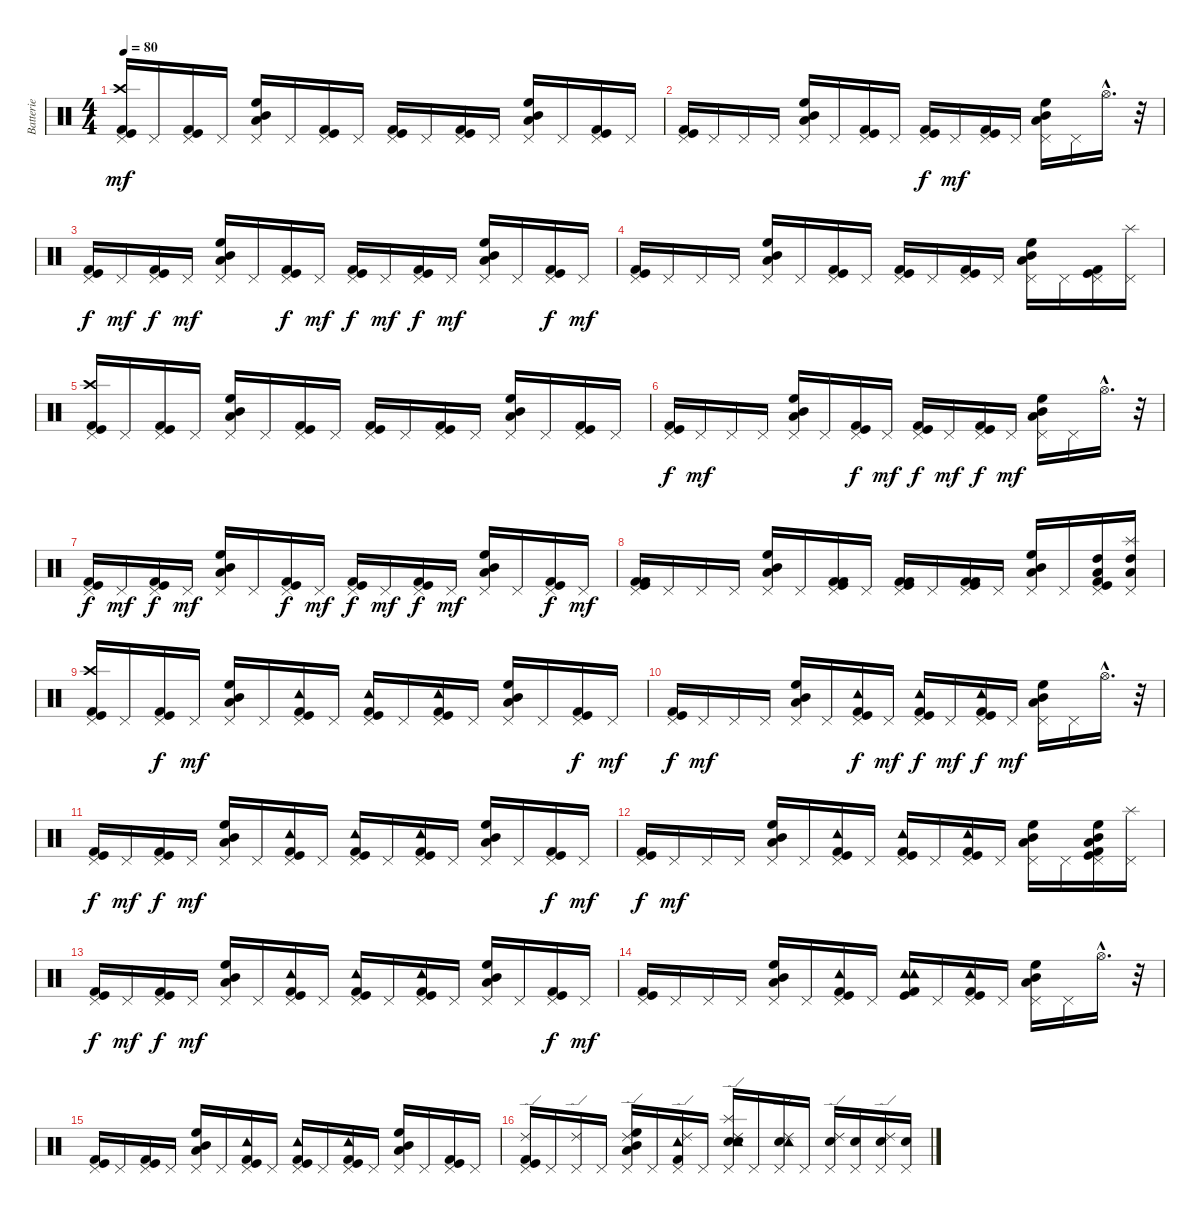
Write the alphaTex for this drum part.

\track ("Batterie" "Batterie") {instrument percussion}
\staff {score}
\articulation defaults
\ts (4 4)
\tempo 80
\clef neutral
\ks c
("Pedal Hi-Hat (hit)" "Crash high (hit)" "Kick (hit)" "Kick (hit) 2").16{dy mf} "Pedal Hi-Hat (hit)".16 ("Pedal Hi-Hat (hit)" "Kick (hit)" "Kick (hit) 2").16 "Pedal Hi-Hat (hit)".16 ("Pedal Hi-Hat (hit)" "High Floor Tom (hit)" "Mid Tom (hit)" "Low Tom (hit)").16 "Pedal Hi-Hat (hit)".16 ("Pedal Hi-Hat (hit)" "Kick (hit)" "Kick (hit) 2").16 "Pedal Hi-Hat (hit)".16 ("Pedal Hi-Hat (hit)" "Kick (hit)" "Kick (hit) 2").16 "Pedal Hi-Hat (hit)".16 ("Pedal Hi-Hat (hit)" "Kick (hit)" "Kick (hit) 2").16 "Pedal Hi-Hat (hit)".16 ("Pedal Hi-Hat (hit)" "High Floor Tom (hit)" "Mid Tom (hit)" "Low Tom (hit)").16 "Pedal Hi-Hat (hit)".16 ("Pedal Hi-Hat (hit)" "Kick (hit)" "Kick (hit) 2").16 "Pedal Hi-Hat (hit)".16 |
("Pedal Hi-Hat (hit)" "Kick (hit)" "Kick (hit) 2").16 "Pedal Hi-Hat (hit)".16 "Pedal Hi-Hat (hit)".16 "Pedal Hi-Hat (hit)".16 ("Pedal Hi-Hat (hit)" "High Floor Tom (hit)" "Mid Tom (hit)" "Low Tom (hit)").16 "Pedal Hi-Hat (hit)".16 ("Pedal Hi-Hat (hit)" "Kick (hit)" "Kick (hit) 2").16 "Pedal Hi-Hat (hit)".16 ("Pedal Hi-Hat (hit)" "Kick (hit)" "Kick (hit) 2").16{dy f} "Pedal Hi-Hat (hit)".16{dy mf} ("Pedal Hi-Hat (hit)" "Kick (hit)" "Kick (hit) 2").16 "Pedal Hi-Hat (hit)".16 ("Pedal Hi-Hat (hit)" "High Floor Tom (hit)" "Mid Tom (hit)" "Low Tom (hit)").16 "Pedal Hi-Hat (hit)".16 "Hi-Hat (open)"{hac}.16{d} r.32 |
("Pedal Hi-Hat (hit)" "Kick (hit)" "Kick (hit) 2").16{dy f} "Pedal Hi-Hat (hit)".16{dy mf} ("Pedal Hi-Hat (hit)" "Kick (hit)" "Kick (hit) 2").16{dy f} "Pedal Hi-Hat (hit)".16{dy mf} ("Pedal Hi-Hat (hit)" "High Floor Tom (hit)" "Mid Tom (hit)" "Low Tom (hit)").16 "Pedal Hi-Hat (hit)".16 ("Pedal Hi-Hat (hit)" "Kick (hit)" "Kick (hit) 2").16{dy f} "Pedal Hi-Hat (hit)".16{dy mf} ("Pedal Hi-Hat (hit)" "Kick (hit)" "Kick (hit) 2").16{dy f} "Pedal Hi-Hat (hit)".16{dy mf} ("Pedal Hi-Hat (hit)" "Kick (hit)" "Kick (hit) 2").16{dy f} "Pedal Hi-Hat (hit)".16{dy mf} ("Pedal Hi-Hat (hit)" "High Floor Tom (hit)" "Mid Tom (hit)" "Low Tom (hit)").16 "Pedal Hi-Hat (hit)".16 ("Pedal Hi-Hat (hit)" "Kick (hit)" "Kick (hit) 2").16{dy f} "Pedal Hi-Hat (hit)".16{dy mf} |
("Pedal Hi-Hat (hit)" "Kick (hit)" "Kick (hit) 2").16 "Pedal Hi-Hat (hit)".16 "Pedal Hi-Hat (hit)".16 "Pedal Hi-Hat (hit)".16 ("Pedal Hi-Hat (hit)" "High Floor Tom (hit)" "Mid Tom (hit)" "Low Tom (hit)").16 "Pedal Hi-Hat (hit)".16 ("Pedal Hi-Hat (hit)" "Kick (hit)" "Kick (hit) 2").16 "Pedal Hi-Hat (hit)".16 ("Pedal Hi-Hat (hit)" "Kick (hit)" "Kick (hit) 2").16 "Pedal Hi-Hat (hit)".16 ("Pedal Hi-Hat (hit)" "Kick (hit)" "Kick (hit) 2").16 "Pedal Hi-Hat (hit)".16 ("Pedal Hi-Hat (hit)" "High Floor Tom (hit)" "Mid Tom (hit)" "Low Tom (hit)").16 "Pedal Hi-Hat (hit)".16 ("Pedal Hi-Hat (hit)" "Kick (hit)" "Kick (hit) 2").16 ("Pedal Hi-Hat (hit)" "Splash (hit)").16 |
("Pedal Hi-Hat (hit)" "Crash high (hit)" "Kick (hit)" "Kick (hit) 2").16 "Pedal Hi-Hat (hit)".16 ("Pedal Hi-Hat (hit)" "Kick (hit)" "Kick (hit) 2").16 "Pedal Hi-Hat (hit)".16 ("Pedal Hi-Hat (hit)" "High Floor Tom (hit)" "Mid Tom (hit)" "Low Tom (hit)").16 "Pedal Hi-Hat (hit)".16 ("Pedal Hi-Hat (hit)" "Kick (hit)" "Kick (hit) 2").16 "Pedal Hi-Hat (hit)".16 ("Pedal Hi-Hat (hit)" "Kick (hit)" "Kick (hit) 2").16 "Pedal Hi-Hat (hit)".16 ("Pedal Hi-Hat (hit)" "Kick (hit)" "Kick (hit) 2").16 "Pedal Hi-Hat (hit)".16 ("Pedal Hi-Hat (hit)" "High Floor Tom (hit)" "Mid Tom (hit)" "Low Tom (hit)").16 "Pedal Hi-Hat (hit)".16 ("Pedal Hi-Hat (hit)" "Kick (hit)" "Kick (hit) 2").16 "Pedal Hi-Hat (hit)".16 |
("Pedal Hi-Hat (hit)" "Kick (hit)" "Kick (hit) 2").16{dy f} "Pedal Hi-Hat (hit)".16{dy mf} "Pedal Hi-Hat (hit)".16 "Pedal Hi-Hat (hit)".16 ("Low Tom (hit)" "High Floor Tom (hit)" "Mid Tom (hit)" "Pedal Hi-Hat (hit)").16 "Pedal Hi-Hat (hit)".16 ("Pedal Hi-Hat (hit)" "Kick (hit)" "Kick (hit) 2").16{dy f} "Pedal Hi-Hat (hit)".16{dy mf} ("Pedal Hi-Hat (hit)" "Kick (hit)" "Kick (hit) 2").16{dy f} "Pedal Hi-Hat (hit)".16{dy mf} ("Pedal Hi-Hat (hit)" "Kick (hit)" "Kick (hit) 2").16{dy f} "Pedal Hi-Hat (hit)".16{dy mf} ("Pedal Hi-Hat (hit)" "High Floor Tom (hit)" "Mid Tom (hit)" "Low Tom (hit)").16 "Pedal Hi-Hat (hit)".16 "Hi-Hat (open)"{hac}.16{d} r.32 |
("Pedal Hi-Hat (hit)" "Kick (hit)" "Kick (hit) 2").16{dy f} "Pedal Hi-Hat (hit)".16{dy mf} ("Pedal Hi-Hat (hit)" "Kick (hit)" "Kick (hit) 2").16{dy f} "Pedal Hi-Hat (hit)".16{dy mf} ("Pedal Hi-Hat (hit)" "High Floor Tom (hit)" "Mid Tom (hit)" "Low Tom (hit)").16 "Pedal Hi-Hat (hit)".16 ("Pedal Hi-Hat (hit)" "Kick (hit)" "Kick (hit) 2").16{dy f} "Pedal Hi-Hat (hit)".16{dy mf} ("Pedal Hi-Hat (hit)" "Kick (hit)" "Kick (hit) 2").16{dy f} "Pedal Hi-Hat (hit)".16{dy mf} ("Pedal Hi-Hat (hit)" "Kick (hit)" "Kick (hit) 2").16{dy f} "Pedal Hi-Hat (hit)".16{dy mf} ("Pedal Hi-Hat (hit)" "High Floor Tom (hit)" "Mid Tom (hit)" "Low Tom (hit)").16 "Pedal Hi-Hat (hit)".16 ("Pedal Hi-Hat (hit)" "Kick (hit)" "Kick (hit) 2").16{dy f} "Pedal Hi-Hat (hit)".16{dy mf} |
("Kick (hit) 2" "Kick (hit)" "Pedal Hi-Hat (hit)" "Kick (hit) 2").16 "Pedal Hi-Hat (hit)".16 "Pedal Hi-Hat (hit)".16 "Pedal Hi-Hat (hit)".16 ("Low Tom (hit)" "Mid Tom (hit)" "High Floor Tom (hit)" "Pedal Hi-Hat (hit)").16 "Pedal Hi-Hat (hit)".16 ("Kick (hit) 2" "Kick (hit)" "Pedal Hi-Hat (hit)" "Kick (hit) 2").16 "Pedal Hi-Hat (hit)".16 ("Kick (hit) 2" "Kick (hit)" "Pedal Hi-Hat (hit)" "Kick (hit) 2").16 "Pedal Hi-Hat (hit)".16 ("Kick (hit) 2" "Kick (hit)" "Pedal Hi-Hat (hit)" "Kick (hit) 2").16 "Pedal Hi-Hat (hit)".16 ("Low Tom (hit)" "High Floor Tom (hit)" "Mid Tom (hit)" "Pedal Hi-Hat (hit)").16 "Pedal Hi-Hat (hit)".16 ("High Tom (hit)" "Low Tom (hit)" "Kick (hit)" "Kick (hit) 2" "Pedal Hi-Hat (hit)").16 ("Low Tom (hit)" "High Tom (hit)" "Splash (hit)" "Pedal Hi-Hat (hit)").16 |
("Pedal Hi-Hat (hit)" "Crash high (hit)" "Kick (hit)" "Kick (hit) 2").16 "Pedal Hi-Hat (hit)".16 ("Pedal Hi-Hat (hit)" "Kick (hit)" "Kick (hit) 2").16{dy f} "Pedal Hi-Hat (hit)".16{dy mf} ("Pedal Hi-Hat (hit)" "High Floor Tom (hit)" "Mid Tom (hit)" "Low Tom (hit)").16 "Pedal Hi-Hat (hit)".16 ("Pedal Hi-Hat (hit)" "Tambourine (hit)" "Kick (hit)" "Kick (hit) 2").16 "Pedal Hi-Hat (hit)".16 ("Pedal Hi-Hat (hit)" "Tambourine (hit)" "Kick (hit)" "Kick (hit) 2").16 "Pedal Hi-Hat (hit)".16 ("Pedal Hi-Hat (hit)" "Tambourine (hit)" "Kick (hit)" "Kick (hit) 2").16 "Pedal Hi-Hat (hit)".16 ("Pedal Hi-Hat (hit)" "High Floor Tom (hit)" "Mid Tom (hit)" "Low Tom (hit)").16 "Pedal Hi-Hat (hit)".16 ("Pedal Hi-Hat (hit)" "Kick (hit)" "Kick (hit) 2").16{dy f} "Pedal Hi-Hat (hit)".16{dy mf} |
("Pedal Hi-Hat (hit)" "Kick (hit)" "Kick (hit) 2").16{dy f} "Pedal Hi-Hat (hit)".16{dy mf} "Pedal Hi-Hat (hit)".16 "Pedal Hi-Hat (hit)".16 ("Pedal Hi-Hat (hit)" "High Floor Tom (hit)" "Mid Tom (hit)" "Low Tom (hit)").16 "Pedal Hi-Hat (hit)".16 ("Pedal Hi-Hat (hit)" "Tambourine (hit)" "Kick (hit)" "Kick (hit) 2").16{dy f} "Pedal Hi-Hat (hit)".16{dy mf} ("Pedal Hi-Hat (hit)" "Tambourine (hit)" "Kick (hit)" "Kick (hit) 2").16{dy f} "Pedal Hi-Hat (hit)".16{dy mf} ("Pedal Hi-Hat (hit)" "Tambourine (hit)" "Kick (hit)" "Kick (hit) 2").16{dy f} "Pedal Hi-Hat (hit)".16{dy mf} ("Pedal Hi-Hat (hit)" "High Floor Tom (hit)" "Mid Tom (hit)" "Low Tom (hit)").16 "Pedal Hi-Hat (hit)".16 "Hi-Hat (open)"{hac}.16{d} r.32 |
("Pedal Hi-Hat (hit)" "Kick (hit)" "Kick (hit) 2").16{dy f} "Pedal Hi-Hat (hit)".16{dy mf} ("Pedal Hi-Hat (hit)" "Kick (hit)" "Kick (hit) 2").16{dy f} "Pedal Hi-Hat (hit)".16{dy mf} ("Pedal Hi-Hat (hit)" "High Floor Tom (hit)" "Mid Tom (hit)" "Low Tom (hit)").16 "Pedal Hi-Hat (hit)".16 ("Pedal Hi-Hat (hit)" "Tambourine (hit)" "Kick (hit)" "Kick (hit) 2").16 "Pedal Hi-Hat (hit)".16 ("Pedal Hi-Hat (hit)" "Tambourine (hit)" "Kick (hit)" "Kick (hit) 2").16 "Pedal Hi-Hat (hit)".16 ("Pedal Hi-Hat (hit)" "Tambourine (hit)" "Kick (hit)" "Kick (hit) 2").16 "Pedal Hi-Hat (hit)".16 ("Pedal Hi-Hat (hit)" "High Floor Tom (hit)" "Mid Tom (hit)" "Low Tom (hit)").16 "Pedal Hi-Hat (hit)".16 ("Pedal Hi-Hat (hit)" "Kick (hit)" "Kick (hit) 2").16{dy f} "Pedal Hi-Hat (hit)".16{dy mf} |
("Pedal Hi-Hat (hit)" "Kick (hit)" "Kick (hit) 2").16{dy f} "Pedal Hi-Hat (hit)".16{dy mf} "Pedal Hi-Hat (hit)".16 "Pedal Hi-Hat (hit)".16 ("Pedal Hi-Hat (hit)" "High Floor Tom (hit)" "Mid Tom (hit)" "Low Tom (hit)").16 "Pedal Hi-Hat (hit)".16 ("Pedal Hi-Hat (hit)" "Tambourine (hit)" "Kick (hit)" "Kick (hit) 2").16 "Pedal Hi-Hat (hit)".16 ("Pedal Hi-Hat (hit)" "Tambourine (hit)" "Kick (hit)" "Kick (hit) 2").16 "Pedal Hi-Hat (hit)".16 ("Pedal Hi-Hat (hit)" "Tambourine (hit)" "Kick (hit)" "Kick (hit) 2").16 "Pedal Hi-Hat (hit)".16 ("Pedal Hi-Hat (hit)" "High Floor Tom (hit)" "Mid Tom (hit)" "Low Tom (hit)").16 "Pedal Hi-Hat (hit)".16 ("Pedal Hi-Hat (hit)" "High Floor Tom (hit)" "Mid Tom (hit)" "Low Tom (hit)" "Kick (hit)" "Kick (hit) 2").16 ("Pedal Hi-Hat (hit)" "Splash (hit)").16 |
("Pedal Hi-Hat (hit)" "Kick (hit)" "Kick (hit) 2").16{dy f} "Pedal Hi-Hat (hit)".16{dy mf} ("Pedal Hi-Hat (hit)" "Kick (hit)" "Kick (hit) 2").16{dy f} "Pedal Hi-Hat (hit)".16{dy mf} ("Pedal Hi-Hat (hit)" "High Floor Tom (hit)" "Mid Tom (hit)" "Low Tom (hit)").16 "Pedal Hi-Hat (hit)".16 ("Pedal Hi-Hat (hit)" "Tambourine (hit)" "Kick (hit)" "Kick (hit) 2").16 "Pedal Hi-Hat (hit)".16 ("Pedal Hi-Hat (hit)" "Tambourine (hit)" "Kick (hit)" "Kick (hit) 2").16 "Pedal Hi-Hat (hit)".16 ("Pedal Hi-Hat (hit)" "Tambourine (hit)" "Kick (hit)" "Kick (hit) 2").16 "Pedal Hi-Hat (hit)".16 ("Pedal Hi-Hat (hit)" "High Floor Tom (hit)" "Mid Tom (hit)" "Low Tom (hit)").16 "Pedal Hi-Hat (hit)".16 ("Pedal Hi-Hat (hit)" "Kick (hit)" "Kick (hit) 2").16{dy f} "Pedal Hi-Hat (hit)".16{dy mf} |
("Pedal Hi-Hat (hit)" "Kick (hit)" "Kick (hit) 2").16 "Pedal Hi-Hat (hit)".16 "Pedal Hi-Hat (hit)".16 "Pedal Hi-Hat (hit)".16 ("Pedal Hi-Hat (hit)" "High Floor Tom (hit)" "Mid Tom (hit)" "Low Tom (hit)").16 "Pedal Hi-Hat (hit)".16 ("Pedal Hi-Hat (hit)" "Tambourine (hit)" "Kick (hit)" "Kick (hit) 2").16 "Pedal Hi-Hat (hit)".16 ("Tambourine (hit)" "Tambourine (hit)" "Kick (hit)" "Kick (hit) 2").16 "Pedal Hi-Hat (hit)".16 ("Pedal Hi-Hat (hit)" "Tambourine (hit)" "Kick (hit)" "Kick (hit) 2").16 "Pedal Hi-Hat (hit)".16 ("Pedal Hi-Hat (hit)" "High Floor Tom (hit)" "Mid Tom (hit)" "Low Tom (hit)").16 "Pedal Hi-Hat (hit)".16 "Hi-Hat (open)"{hac}.16{d} r.32 |
("Pedal Hi-Hat (hit)" "Kick (hit)" "Kick (hit) 2").16 "Pedal Hi-Hat (hit)".16 ("Pedal Hi-Hat (hit)" "Kick (hit)" "Kick (hit) 2").16 "Pedal Hi-Hat (hit)".16 ("Pedal Hi-Hat (hit)" "High Floor Tom (hit)" "Mid Tom (hit)" "Low Tom (hit)").16 "Pedal Hi-Hat (hit)".16 ("Pedal Hi-Hat (hit)" "Tambourine (hit)" "Kick (hit)" "Kick (hit) 2").16 "Pedal Hi-Hat (hit)".16 ("Pedal Hi-Hat (hit)" "Tambourine (hit)" "Kick (hit)" "Kick (hit) 2").16 "Pedal Hi-Hat (hit)".16 ("Pedal Hi-Hat (hit)" "Tambourine (hit)" "Kick (hit)" "Kick (hit) 2").16 "Pedal Hi-Hat (hit)".16 ("Pedal Hi-Hat (hit)" "High Floor Tom (hit)" "Mid Tom (hit)" "Low Tom (hit)").16 "Pedal Hi-Hat (hit)".16 ("Pedal Hi-Hat (hit)" "Kick (hit)" "Kick (hit) 2").16 "Pedal Hi-Hat (hit)".16 |
("Pedal Hi-Hat (hit)" "Ride (edge) 2" "Kick (hit)" "Kick (hit) 2").16 "Pedal Hi-Hat (hit)".16 ("Pedal Hi-Hat (hit)" "Ride (edge) 2").16 "Pedal Hi-Hat (hit)".16 ("Pedal Hi-Hat (hit)" "Ride (edge) 2" "High Floor Tom (hit)" "Mid Tom (hit)" "Low Tom (hit)").16 "Pedal Hi-Hat (hit)".16 ("Pedal Hi-Hat (hit)" "Ride (edge) 2" "Tambourine (hit)" "Kick (hit) 2").16 "Pedal Hi-Hat (hit)".16 ("Pedal Hi-Hat (hit)" "Ride (edge) 2" "Snare (hit) 2" "Tambourine (hit)" "Splash (hit)" "Electric Snare (hit)").16 "Pedal Hi-Hat (hit)".16 ("Pedal Hi-Hat (hit)" "Ride (edge) 2" "Snare (hit) 2" "Tambourine (hit)").16 "Pedal Hi-Hat (hit)".16 ("Pedal Hi-Hat (hit)" "Ride (edge) 2" "Snare (hit) 2").16 ("Pedal Hi-Hat (hit)" "Snare (hit) 2").16 ("Pedal Hi-Hat (hit)" "Ride (edge) 2" "Snare (hit) 2").16 ("Pedal Hi-Hat (hit)" "Snare (hit) 2").16
